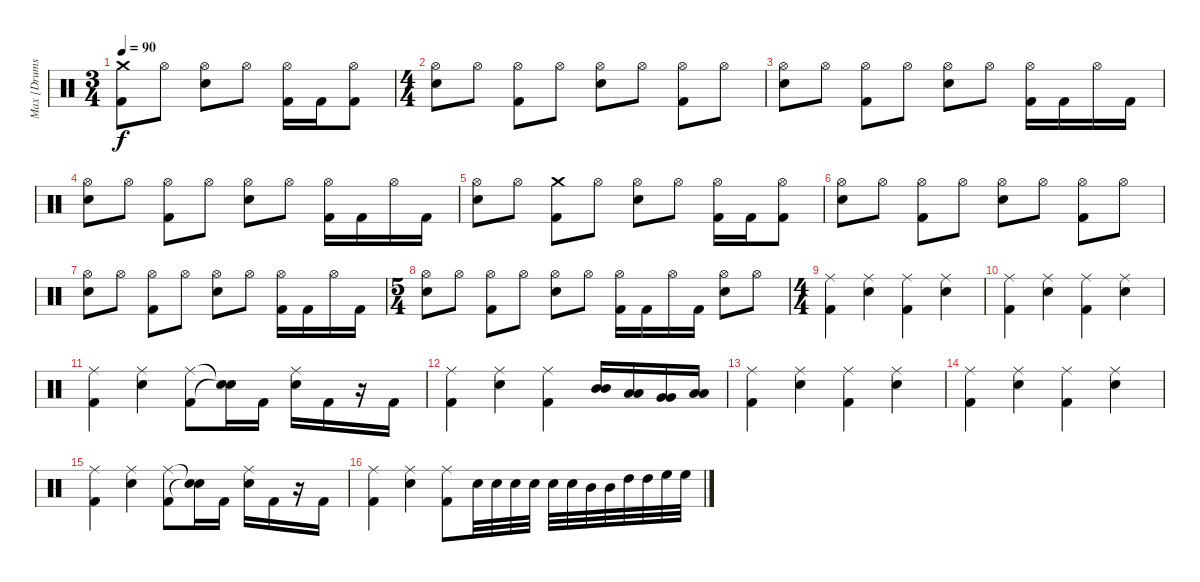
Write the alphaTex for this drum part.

\track ("Max [Drums]" "Max [Drums") {instrument percussion}
\staff {score}
\articulation defaults
\ts (3 4)
\tempo 90
\clef neutral
\ks c
("Crash medium (hit)" "Kick (hit) 2").8{dy f} "Hi-Hat (open)".8 ("Hi-Hat (open)" "Snare (hit) 2").8 "Hi-Hat (open)".8 ("Hi-Hat (open)" "Kick (hit) 2").16 "Kick (hit) 2".16 ("Hi-Hat (open)" "Kick (hit) 2").8 |
\ts (4 4)
("Hi-Hat (open)" "Snare (hit) 2").8 "Hi-Hat (open)".8 ("Hi-Hat (open)" "Kick (hit) 2").8 "Hi-Hat (open)".8 ("Hi-Hat (open)" "Snare (hit) 2").8 "Hi-Hat (open)".8 ("Hi-Hat (open)" "Kick (hit) 2").8 "Hi-Hat (open)".8 |
("Hi-Hat (open)" "Snare (hit) 2").8 "Hi-Hat (open)".8 ("Hi-Hat (open)" "Kick (hit) 2").8 "Hi-Hat (open)".8 ("Hi-Hat (open)" "Snare (hit) 2").8 "Hi-Hat (open)".8 ("Hi-Hat (open)" "Kick (hit) 2").16 "Kick (hit) 2".16 "Hi-Hat (open)".16 "Kick (hit) 2".16 |
("Hi-Hat (open)" "Snare (hit) 2").8 "Hi-Hat (open)".8 ("Hi-Hat (open)" "Kick (hit) 2").8 "Hi-Hat (open)".8 ("Hi-Hat (open)" "Snare (hit) 2").8 "Hi-Hat (open)".8 ("Hi-Hat (open)" "Kick (hit) 2").16 "Kick (hit) 2".16 "Hi-Hat (open)".16 "Kick (hit) 2".16 |
("Hi-Hat (open)" "Snare (hit) 2").8 "Hi-Hat (open)".8 ("Crash medium (hit)" "Kick (hit) 2").8 "Hi-Hat (open)".8 ("Hi-Hat (open)" "Snare (hit) 2").8 "Hi-Hat (open)".8 ("Hi-Hat (open)" "Kick (hit) 2").16 "Kick (hit) 2".16 ("Hi-Hat (open)" "Kick (hit) 2").8 |
("Hi-Hat (open)" "Snare (hit) 2").8 "Hi-Hat (open)".8 ("Hi-Hat (open)" "Kick (hit) 2").8 "Hi-Hat (open)".8 ("Hi-Hat (open)" "Snare (hit) 2").8 "Hi-Hat (open)".8 ("Hi-Hat (open)" "Kick (hit) 2").8 "Hi-Hat (open)".8 |
("Hi-Hat (open)" "Snare (hit) 2").8 "Hi-Hat (open)".8 ("Hi-Hat (open)" "Kick (hit) 2").8 "Hi-Hat (open)".8 ("Hi-Hat (open)" "Snare (hit) 2").8 "Hi-Hat (open)".8 ("Hi-Hat (open)" "Kick (hit) 2").16 "Kick (hit) 2".16 "Hi-Hat (open)".16 "Kick (hit) 2".16 |
\ts (5 4)
("Hi-Hat (open)" "Snare (hit) 2").8 "Hi-Hat (open)".8 ("Hi-Hat (open)" "Kick (hit) 2").8 "Hi-Hat (open)".8 ("Hi-Hat (open)" "Snare (hit) 2").8 "Hi-Hat (open)".8 ("Hi-Hat (open)" "Kick (hit) 2").16 "Kick (hit) 2".16 "Hi-Hat (open)".16 "Kick (hit) 2".16 ("Hi-Hat (open)" "Snare (hit) 2").8 "Hi-Hat (open)".8 |
\ts (4 4)
("Ride (middle)" "Kick (hit) 2").4 ("Ride (middle)" "Snare (hit) 2").4 ("Ride (middle)" "Kick (hit) 2").4 ("Ride (middle)" "Snare (hit) 2").4 |
("Ride (middle)" "Kick (hit) 2").4 ("Ride (middle)" "Snare (hit) 2").4 ("Ride (middle)" "Kick (hit) 2").4 ("Ride (middle)" "Snare (hit) 2").4 |
("Ride (middle)" "Kick (hit) 2").4 ("Ride (middle)" "Snare (hit) 2").4 ("Ride (middle)" "Kick (hit) 2").8 ("Snare (hit)"{t} "Snare (hit)"{t}).16 "Kick (hit) 2".16 ("Ride (middle)" "Snare (hit) 2").16 "Kick (hit) 2".16 r.16 "Kick (hit) 2".16 |
("Ride (middle)" "Kick (hit) 2").4 ("Ride (middle)" "Snare (hit) 2").4 ("Ride (middle)" "Kick (hit) 2").4 ("Mid Tom (hit)" "Mid Tom (hit)").16{bd 480} ("Low Tom (hit)" "Low Tom (hit)").16{bd 480} ("Very Low Tom (hit)" "Very Low Tom (hit)").16{bd 480} ("Low Tom (hit)" "Low Tom (hit)").16{bd 480} |
("Ride (middle)" "Kick (hit) 2").4 ("Ride (middle)" "Snare (hit) 2").4 ("Ride (middle)" "Kick (hit) 2").4 ("Ride (middle)" "Snare (hit) 2").4 |
("Ride (middle)" "Kick (hit) 2").4 ("Ride (middle)" "Snare (hit) 2").4 ("Ride (middle)" "Kick (hit) 2").4 ("Ride (middle)" "Snare (hit) 2").4 |
("Ride (middle)" "Kick (hit) 2").4 ("Ride (middle)" "Snare (hit) 2").4 ("Ride (middle)" "Kick (hit) 2").8 ("Snare (hit)"{t} "Snare (hit)"{t}).16 "Kick (hit) 2".16 ("Ride (middle)" "Snare (hit) 2").16 "Kick (hit) 2".16 r.16 "Kick (hit) 2".16 |
("Ride (middle)" "Kick (hit) 2").4 ("Ride (middle)" "Snare (hit) 2").4 ("Ride (middle)" "Kick (hit) 2").8 "Snare (hit) 2".32 "Snare (hit) 2".32 "Snare (hit) 2".32 "Snare (hit) 2".32 "Snare (hit) 2".32 "Snare (hit) 2".32 "Mid Tom (hit)".32 "Mid Tom (hit)".32 "High Tom (hit)".32 "High Tom (hit)".32 "High Floor Tom (hit)".32 "High Floor Tom (hit)".32
